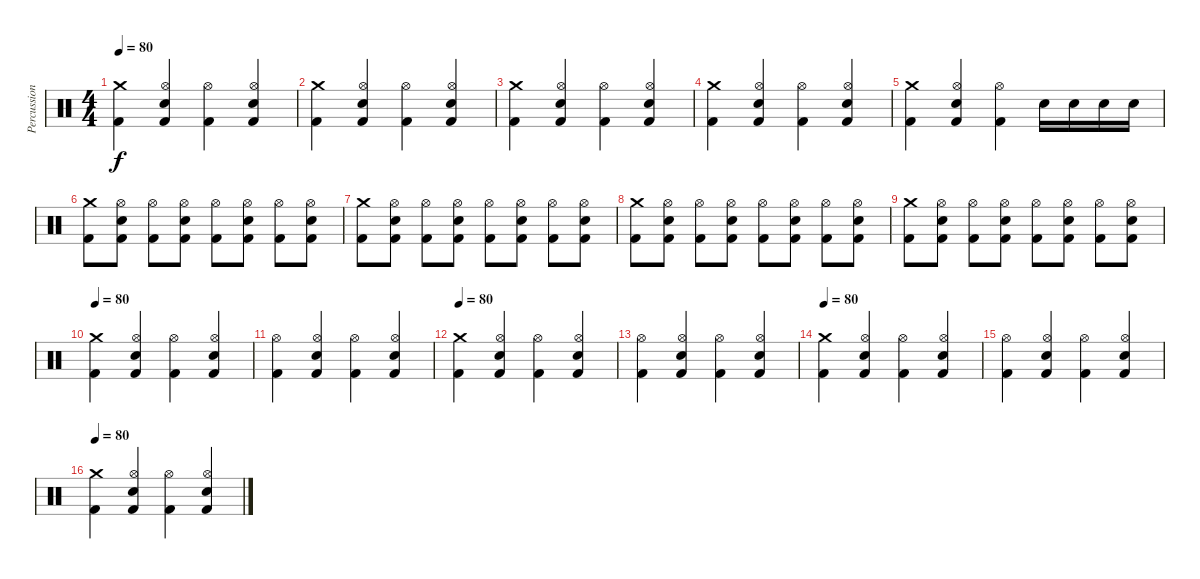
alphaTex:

\track ("Percussion" "Percussion") {instrument percussion}
\staff {score}
\articulation defaults
\ts (4 4)
\tempo 80
\clef neutral
\ks c
("Crash medium (hit)" "Kick (hit) 2").4{dy f} ("Hi-Hat (open)" "Electric Snare (hit)" "Kick (hit) 2").4 ("Hi-Hat (open)" "Kick (hit) 2").4 ("Hi-Hat (open)" "Electric Snare (hit)" "Kick (hit) 2").4 |
("Crash medium (hit)" "Kick (hit) 2").4 ("Hi-Hat (open)" "Electric Snare (hit)" "Kick (hit) 2").4 ("Hi-Hat (open)" "Kick (hit) 2").4 ("Hi-Hat (open)" "Electric Snare (hit)" "Kick (hit) 2").4 |
("Crash medium (hit)" "Kick (hit) 2").4 ("Hi-Hat (open)" "Electric Snare (hit)" "Kick (hit) 2").4 ("Hi-Hat (open)" "Kick (hit) 2").4 ("Hi-Hat (open)" "Electric Snare (hit)" "Kick (hit) 2").4 |
("Crash medium (hit)" "Kick (hit) 2").4 ("Hi-Hat (open)" "Electric Snare (hit)" "Kick (hit) 2").4 ("Hi-Hat (open)" "Kick (hit) 2").4 ("Hi-Hat (open)" "Electric Snare (hit)" "Kick (hit) 2").4 |
("Crash medium (hit)" "Kick (hit) 2").4 ("Hi-Hat (open)" "Electric Snare (hit)" "Kick (hit) 2").4 ("Hi-Hat (open)" "Kick (hit) 2").4 "Electric Snare (hit)".16 "Electric Snare (hit)".16 "Electric Snare (hit)".16 "Electric Snare (hit)".16 |
("Crash medium (hit)" "Kick (hit) 2").8 ("Hi-Hat (open)" "Electric Snare (hit)" "Kick (hit) 2").8 ("Hi-Hat (open)" "Kick (hit) 2").8 ("Hi-Hat (open)" "Electric Snare (hit)" "Kick (hit) 2").8 ("Hi-Hat (open)" "Kick (hit) 2").8 ("Hi-Hat (open)" "Electric Snare (hit)" "Kick (hit) 2").8 ("Hi-Hat (open)" "Kick (hit) 2").8 ("Hi-Hat (open)" "Electric Snare (hit)" "Kick (hit) 2").8 |
("Crash medium (hit)" "Kick (hit) 2").8 ("Hi-Hat (open)" "Electric Snare (hit)" "Kick (hit) 2").8 ("Hi-Hat (open)" "Kick (hit) 2").8 ("Hi-Hat (open)" "Electric Snare (hit)" "Kick (hit) 2").8 ("Hi-Hat (open)" "Kick (hit) 2").8 ("Hi-Hat (open)" "Electric Snare (hit)" "Kick (hit) 2").8 ("Hi-Hat (open)" "Kick (hit) 2").8 ("Hi-Hat (open)" "Electric Snare (hit)" "Kick (hit) 2").8 |
("Crash medium (hit)" "Kick (hit) 2").8 ("Hi-Hat (open)" "Electric Snare (hit)" "Kick (hit) 2").8 ("Hi-Hat (open)" "Kick (hit) 2").8 ("Hi-Hat (open)" "Electric Snare (hit)" "Kick (hit) 2").8 ("Hi-Hat (open)" "Kick (hit) 2").8 ("Hi-Hat (open)" "Electric Snare (hit)" "Kick (hit) 2").8 ("Hi-Hat (open)" "Kick (hit) 2").8 ("Hi-Hat (open)" "Electric Snare (hit)" "Kick (hit) 2").8 |
("Crash medium (hit)" "Kick (hit) 2").8 ("Hi-Hat (open)" "Electric Snare (hit)" "Kick (hit) 2").8 ("Hi-Hat (open)" "Kick (hit) 2").8 ("Hi-Hat (open)" "Electric Snare (hit)" "Kick (hit) 2").8 ("Hi-Hat (open)" "Kick (hit) 2").8 ("Hi-Hat (open)" "Electric Snare (hit)" "Kick (hit) 2").8 ("Hi-Hat (open)" "Kick (hit) 2").8 ("Hi-Hat (open)" "Electric Snare (hit)" "Kick (hit) 2").8 |
\tempo 80
("Crash medium (hit)" "Kick (hit) 2").4 ("Hi-Hat (open)" "Electric Snare (hit)" "Kick (hit) 2").4 ("Hi-Hat (open)" "Kick (hit) 2").4 ("Hi-Hat (open)" "Electric Snare (hit)" "Kick (hit) 2").4 |
("Hi-Hat (open)" "Kick (hit) 2").4 ("Hi-Hat (open)" "Electric Snare (hit)" "Kick (hit) 2").4 ("Hi-Hat (open)" "Kick (hit) 2").4 ("Hi-Hat (open)" "Electric Snare (hit)" "Kick (hit) 2").4 |
\tempo 80
("Crash medium (hit)" "Kick (hit) 2").4 ("Hi-Hat (open)" "Electric Snare (hit)" "Kick (hit) 2").4 ("Hi-Hat (open)" "Kick (hit) 2").4 ("Hi-Hat (open)" "Electric Snare (hit)" "Kick (hit) 2").4 |
("Hi-Hat (open)" "Kick (hit) 2").4 ("Hi-Hat (open)" "Electric Snare (hit)" "Kick (hit) 2").4 ("Hi-Hat (open)" "Kick (hit) 2").4 ("Hi-Hat (open)" "Electric Snare (hit)" "Kick (hit) 2").4 |
\tempo 80
("Crash medium (hit)" "Kick (hit) 2").4 ("Hi-Hat (open)" "Electric Snare (hit)" "Kick (hit) 2").4 ("Hi-Hat (open)" "Kick (hit) 2").4 ("Hi-Hat (open)" "Electric Snare (hit)" "Kick (hit) 2").4 |
("Hi-Hat (open)" "Kick (hit) 2").4 ("Hi-Hat (open)" "Electric Snare (hit)" "Kick (hit) 2").4 ("Hi-Hat (open)" "Kick (hit) 2").4 ("Hi-Hat (open)" "Electric Snare (hit)" "Kick (hit) 2").4 |
\tempo 80
("Crash medium (hit)" "Kick (hit) 2").4 ("Hi-Hat (open)" "Electric Snare (hit)" "Kick (hit) 2").4 ("Hi-Hat (open)" "Kick (hit) 2").4 ("Hi-Hat (open)" "Electric Snare (hit)" "Kick (hit) 2").4
